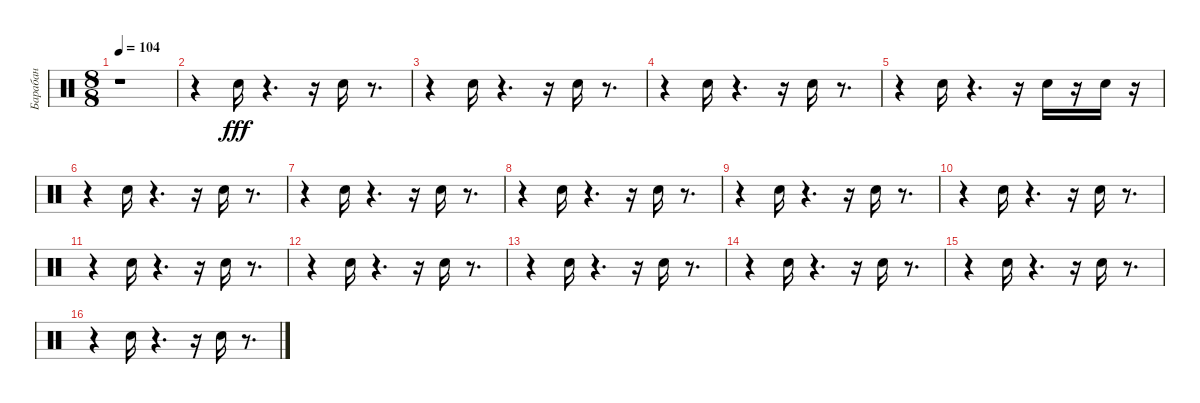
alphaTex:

\track ("Барабан" "Барабан") {instrument percussion}
\staff {score}
\articulation defaults
\ts (8 8)
\tempo 104
\clef neutral
\ks c
r.1{dy fff} |
r.4 "Snare (hit) 2".16 r.4{d} r.16 "Snare (hit) 2".16 r.8{d} |
r.4 "Snare (hit) 2".16 r.4{d} r.16 "Snare (hit) 2".16 r.8{d} |
r.4 "Snare (hit) 2".16 r.4{d} r.16 "Snare (hit) 2".16 r.8{d} |
r.4 "Snare (hit) 2".16 r.4{d} r.16 "Snare (hit) 2".16 r.16 "Snare (hit) 2".16 r.16 |
r.4 "Snare (hit) 2".16 r.4{d} r.16 "Snare (hit) 2".16 r.8{d} |
r.4 "Snare (hit) 2".16 r.4{d} r.16 "Snare (hit) 2".16 r.8{d} |
r.4 "Snare (hit) 2".16 r.4{d} r.16 "Snare (hit) 2".16 r.8{d} |
r.4 "Snare (hit) 2".16 r.4{d} r.16 "Snare (hit) 2".16 r.8{d} |
r.4 "Snare (hit) 2".16 r.4{d} r.16 "Snare (hit) 2".16 r.8{d} |
r.4 "Snare (hit) 2".16 r.4{d} r.16 "Snare (hit) 2".16 r.8{d} |
r.4 "Snare (hit) 2".16 r.4{d} r.16 "Snare (hit) 2".16 r.8{d} |
r.4 "Snare (hit) 2".16 r.4{d} r.16 "Snare (hit) 2".16 r.8{d} |
r.4 "Snare (hit) 2".16 r.4{d} r.16 "Snare (hit) 2".16 r.8{d} |
r.4 "Snare (hit) 2".16 r.4{d} r.16 "Snare (hit) 2".16 r.8{d} |
r.4 "Snare (hit) 2".16 r.4{d} r.16 "Snare (hit) 2".16 r.8{d}
